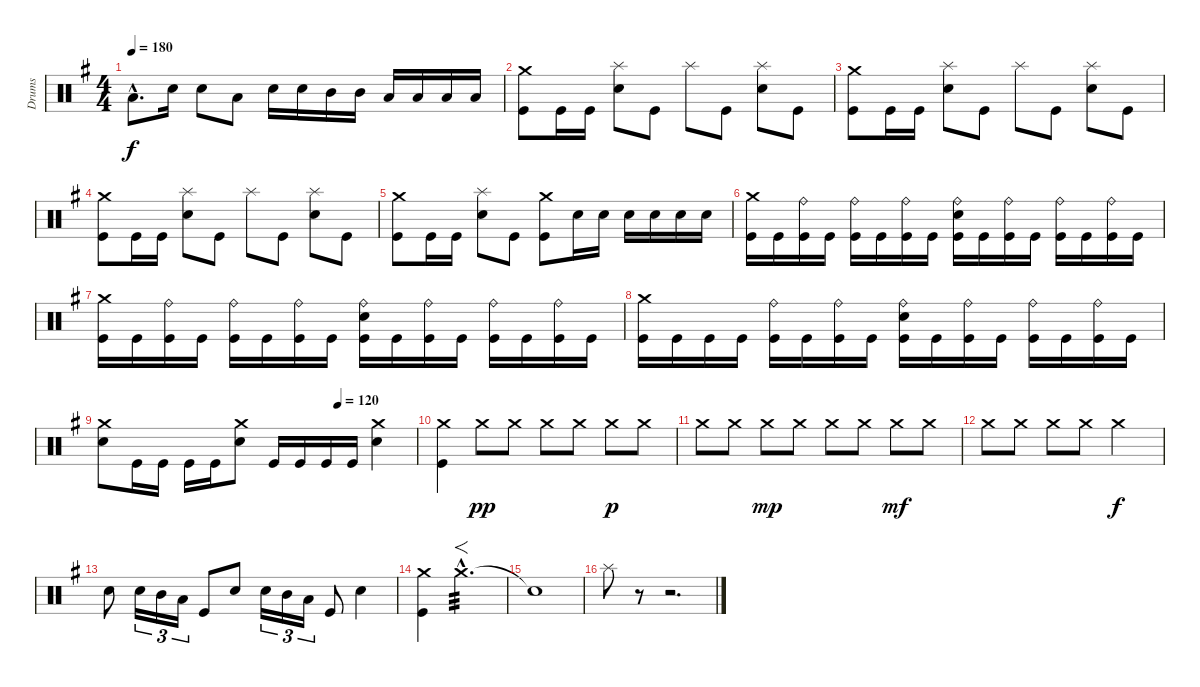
\track ("Drums" "Drums") {instrument percussion}
\staff {score}
\articulation defaults
\ts (4 4)
\tempo 180
\clef neutral
\ks g "Low Tom (hit)"{hac}.8{d dy f} "Electric Snare (hit)".16 "Electric Snare (hit)".8 "Low Tom (hit)".8 "Electric Snare (hit)".16 "Electric Snare (hit)".16 "Mid Tom (hit)".16 "Mid Tom (hit)".16 "Low Tom (hit)".16 "Low Tom (hit)".16 "Low Tom (hit)".16 "Low Tom (hit)".16
|
("Kick (hit)" "Crash medium (hit)").8 "Kick (hit)".16 "Kick (hit)".16 ("Electric Snare (hit)" "Splash (hit)").8 "Kick (hit)".8 "Splash (hit)".8 "Kick (hit)".8 ("Electric Snare (hit)" "Splash (hit)").8 "Kick (hit)".8 |
("Kick (hit)" "Crash medium (hit)").8 "Kick (hit)".16 "Kick (hit)".16 ("Electric Snare (hit)" "Splash (hit)").8 "Kick (hit)".8 "Splash (hit)".8 "Kick (hit)".8 ("Electric Snare (hit)" "Splash (hit)").8 "Kick (hit)".8 |
("Kick (hit)" "Crash medium (hit)").8 "Kick (hit)".16 "Kick (hit)".16 ("Electric Snare (hit)" "Splash (hit)").8 "Kick (hit)".8 "Splash (hit)".8 "Kick (hit)".8 ("Electric Snare (hit)" "Splash (hit)").8 "Kick (hit)".8 |
("Kick (hit)" "Crash medium (hit)").8 "Kick (hit)".16 "Kick (hit)".16 ("Electric Snare (hit)" "Splash (hit)").8 "Kick (hit)".8 ("Kick (hit)" "Crash medium (hit)").8 "Electric Snare (hit)".16 "Electric Snare (hit)".16 "Electric Snare (hit)".16 "Electric Snare (hit)".16 "Electric Snare (hit)".16 "Electric Snare (hit)".16 |
("Kick (hit)" "Crash medium (hit)").16 "Kick (hit)".16 ("Kick (hit)" "Ride (bell)").16 "Kick (hit)".16 ("Kick (hit)" "Ride (bell)").16 "Kick (hit)".16 ("Kick (hit)" "Ride (bell)").16 "Kick (hit)".16 ("Kick (hit)" "Electric Snare (hit)" "Ride (bell)").16 "Kick (hit)".16 ("Kick (hit)" "Ride (bell)").16 "Kick (hit)".16 ("Kick (hit)" "Ride (bell)").16 "Kick (hit)".16 ("Kick (hit)" "Ride (bell)").16 "Kick (hit)".16 |
("Kick (hit)" "Crash medium (hit)").16 "Kick (hit)".16 ("Kick (hit)" "Ride (bell)").16 "Kick (hit)".16 ("Kick (hit)" "Ride (bell)").16 "Kick (hit)".16 ("Kick (hit)" "Ride (bell)").16 "Kick (hit)".16 ("Kick (hit)" "Electric Snare (hit)" "Ride (bell)").16 "Kick (hit)".16 ("Kick (hit)" "Ride (bell)").16 "Kick (hit)".16 ("Kick (hit)" "Ride (bell)").16 "Kick (hit)".16 ("Kick (hit)" "Ride (bell)").16 "Kick (hit)".16 |
("Kick (hit)" "Crash medium (hit)").16 "Kick (hit)".16 "Kick (hit)".16 "Kick (hit)".16 ("Kick (hit)" "Ride (bell)").16 "Kick (hit)".16 ("Kick (hit)" "Ride (bell)").16 "Kick (hit)".16 ("Kick (hit)" "Electric Snare (hit)" "Ride (bell)").16 "Kick (hit)".16 ("Kick (hit)" "Ride (bell)").16 "Kick (hit)".16 ("Kick (hit)" "Ride (bell)").16 "Kick (hit)".16 ("Kick (hit)" "Ride (bell)").16 "Kick (hit)".16 |
\tempo (120 0.75)
("Electric Snare (hit)" "Crash medium (hit)").8 "Kick (hit)".16 "Kick (hit)".16 "Kick (hit)".16 "Kick (hit)".16 ("Electric Snare (hit)" "Crash medium (hit)").8 "Kick (hit)".16 "Kick (hit)".16 "Kick (hit)".16 "Kick (hit)".16 ("Electric Snare (hit)" "Crash medium (hit)").4 |
("Kick (hit)" "Crash medium (hit)").4 "Crash medium (hit)".8{dy pp} "Crash medium (hit)".8 "Crash medium (hit)".8 "Crash medium (hit)".8 "Crash medium (hit)".8{dy p} "Crash medium (hit)".8 |
"Crash medium (hit)".8 "Crash medium (hit)".8 "Crash medium (hit)".8{dy mp} "Crash medium (hit)".8 "Crash medium (hit)".8 "Crash medium (hit)".8 "Crash medium (hit)".8{dy mf} "Crash medium (hit)".8 |
"Crash medium (hit)".8 "Crash medium (hit)".8 "Crash medium (hit)".8 "Crash medium (hit)".8 "Crash medium (hit)".2{dy f} |
"Electric Snare (hit)".8 "Electric Snare (hit)".16{tu (3 2)} "Mid Tom (hit)".16{tu (3 2)} "Low Tom (hit)".16{tu (3 2)} "Kick (hit)".8 "Electric Snare (hit)".8 "Electric Snare (hit)".16{tu (3 2)} "Mid Tom (hit)".16{tu (3 2)} "Low Tom (hit)".16{tu (3 2)} "Kick (hit)".8 "Electric Snare (hit)".4 |
("Kick (hit)" "Crash medium (hit)").4 "Crash medium (hit)"{hac}.2{f d tp 3} |
"Snare (hit)"{t}.1 |
"Splash (hit)".8 r.8 r.2{d}
